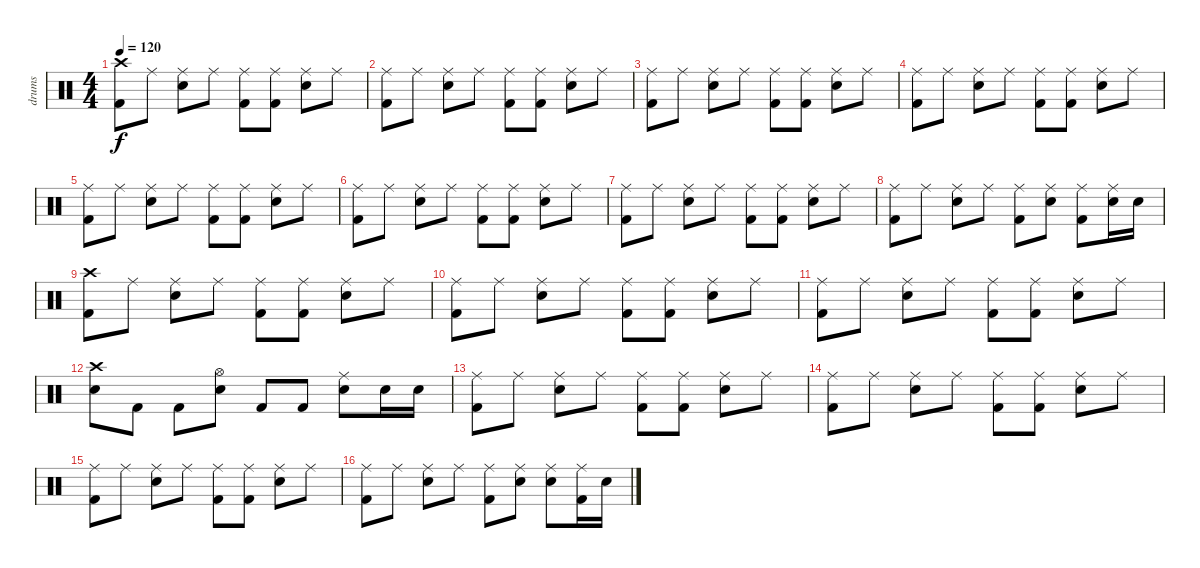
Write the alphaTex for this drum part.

\track ("drums" "drums") {instrument percussion}
\staff {score}
\articulation defaults
\ts (4 4)
\tempo 120
\clef neutral
\ks c
("Crash high (hit)" "Kick (hit) 2").8{dy f} "Ride (middle)".8 ("Ride (middle)" "Snare (hit) 2").8 "Ride (middle)".8 ("Ride (middle)" "Kick (hit) 2").8 ("Ride (middle)" "Kick (hit) 2").8 ("Ride (middle)" "Snare (hit) 2").8 "Ride (middle)".8 |
("Ride (middle)" "Kick (hit) 2").8 "Ride (middle)".8 ("Ride (middle)" "Snare (hit) 2").8 "Ride (middle)".8 ("Ride (middle)" "Kick (hit) 2").8 ("Ride (middle)" "Kick (hit) 2").8 ("Ride (middle)" "Snare (hit) 2").8 "Ride (middle)".8 |
("Ride (middle)" "Kick (hit) 2").8 "Ride (middle)".8 ("Ride (middle)" "Snare (hit) 2").8 "Ride (middle)".8 ("Ride (middle)" "Kick (hit) 2").8 ("Ride (middle)" "Kick (hit) 2").8 ("Ride (middle)" "Snare (hit) 2").8 "Ride (middle)".8 |
("Ride (middle)" "Kick (hit) 2").8 "Ride (middle)".8 ("Ride (middle)" "Snare (hit) 2").8 "Ride (middle)".8 ("Ride (middle)" "Kick (hit) 2").8 ("Ride (middle)" "Kick (hit) 2").8 ("Ride (middle)" "Snare (hit) 2").8 "Ride (middle)".8 |
("Ride (middle)" "Kick (hit) 2").8 "Ride (middle)".8 ("Ride (middle)" "Snare (hit) 2").8 "Ride (middle)".8 ("Ride (middle)" "Kick (hit) 2").8 ("Ride (middle)" "Kick (hit) 2").8 ("Ride (middle)" "Snare (hit) 2").8 "Ride (middle)".8 |
("Ride (middle)" "Kick (hit) 2").8 "Ride (middle)".8 ("Ride (middle)" "Snare (hit) 2").8 "Ride (middle)".8 ("Ride (middle)" "Kick (hit) 2").8 ("Ride (middle)" "Kick (hit) 2").8 ("Ride (middle)" "Snare (hit) 2").8 "Ride (middle)".8 |
("Ride (middle)" "Kick (hit) 2").8 "Ride (middle)".8 ("Ride (middle)" "Snare (hit) 2").8 "Ride (middle)".8 ("Ride (middle)" "Kick (hit) 2").8 ("Ride (middle)" "Kick (hit) 2").8 ("Ride (middle)" "Snare (hit) 2").8 "Ride (middle)".8 |
("Ride (middle)" "Kick (hit) 2").8 "Ride (middle)".8 ("Ride (middle)" "Snare (hit) 2").8 "Ride (middle)".8 ("Ride (middle)" "Kick (hit) 2").8 ("Ride (middle)" "Snare (hit) 2").8 ("Ride (middle)" "Kick (hit) 2").8 ("Ride (middle)" "Snare (hit) 2").16 "Snare (hit) 2".16 |
("Crash high (hit)" "Kick (hit) 2").8 "Ride (middle)".8 ("Ride (middle)" "Snare (hit) 2").8 "Ride (middle)".8 ("Ride (middle)" "Kick (hit) 2").8 ("Ride (middle)" "Kick (hit) 2").8 ("Ride (middle)" "Snare (hit) 2").8 "Ride (middle)".8 |
("Ride (middle)" "Kick (hit) 2").8 "Ride (middle)".8 ("Ride (middle)" "Snare (hit) 2").8 "Ride (middle)".8 ("Ride (middle)" "Kick (hit) 2").8 ("Ride (middle)" "Kick (hit) 2").8 ("Ride (middle)" "Snare (hit) 2").8 "Ride (middle)".8 |
("Ride (middle)" "Kick (hit) 2").8 "Ride (middle)".8 ("Ride (middle)" "Snare (hit) 2").8 "Ride (middle)".8 ("Ride (middle)" "Kick (hit) 2").8 ("Ride (middle)" "Kick (hit) 2").8 ("Ride (middle)" "Snare (hit) 2").8 "Ride (middle)".8 |
("Crash high (hit)" "Snare (hit) 2").8 "Kick (hit) 2".8 "Kick (hit) 2".8 ("Hi-Hat (open)" "Snare (hit) 2").8 "Kick (hit) 2".8 "Kick (hit) 2".8 ("Ride (middle)" "Snare (hit) 2").8 "Snare (hit) 2".16 "Snare (hit) 2".16 |
("Ride (middle)" "Kick (hit) 2").8 "Ride (middle)".8 ("Ride (middle)" "Snare (hit) 2").8 "Ride (middle)".8 ("Ride (middle)" "Kick (hit) 2").8 ("Ride (middle)" "Kick (hit) 2").8 ("Ride (middle)" "Snare (hit) 2").8 "Ride (middle)".8 |
("Ride (middle)" "Kick (hit) 2").8 "Ride (middle)".8 ("Ride (middle)" "Snare (hit) 2").8 "Ride (middle)".8 ("Ride (middle)" "Kick (hit) 2").8 ("Ride (middle)" "Kick (hit) 2").8 ("Ride (middle)" "Snare (hit) 2").8 "Ride (middle)".8 |
("Ride (middle)" "Kick (hit) 2").8 "Ride (middle)".8 ("Ride (middle)" "Snare (hit) 2").8 "Ride (middle)".8 ("Ride (middle)" "Kick (hit) 2").8 ("Ride (middle)" "Kick (hit) 2").8 ("Ride (middle)" "Snare (hit) 2").8 "Ride (middle)".8 |
("Ride (middle)" "Kick (hit) 2").8 "Ride (middle)".8 ("Ride (middle)" "Snare (hit) 2").8 "Ride (middle)".8 ("Ride (middle)" "Kick (hit) 2").8 ("Ride (middle)" "Snare (hit) 2").8 ("Ride (middle)" "Snare (hit) 2").8 ("Ride (middle)" "Kick (hit) 2").16 "Snare (hit) 2".16
